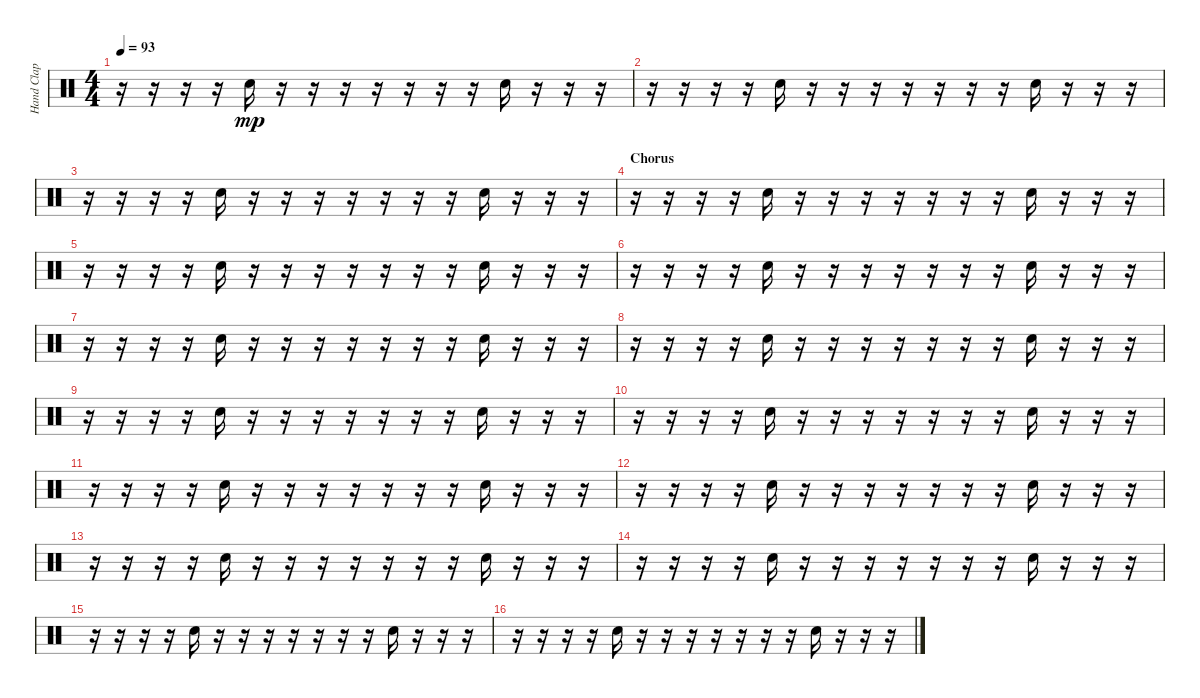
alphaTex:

\track ("Hand Clap" "Hand Clap") {instrument percussion}
\staff {score}
\articulation defaults
\ts (4 4)
\tempo 93
\clef neutral
\ks c
r.16{dy mp} r.16 r.16 r.16 "Hand Clap (hit)".16 r.16 r.16 r.16 r.16 r.16 r.16 r.16 "Hand Clap (hit)".16 r.16 r.16 r.16 |
r.16 r.16 r.16 r.16 "Hand Clap (hit)".16 r.16 r.16 r.16 r.16 r.16 r.16 r.16 "Hand Clap (hit)".16 r.16 r.16 r.16 |
r.16 r.16 r.16 r.16 "Hand Clap (hit)".16 r.16 r.16 r.16 r.16 r.16 r.16 r.16 "Hand Clap (hit)".16 r.16 r.16 r.16 |
\section ("" "Chorus")
r.16 r.16 r.16 r.16 "Hand Clap (hit)".16 r.16 r.16 r.16 r.16 r.16 r.16 r.16 "Hand Clap (hit)".16 r.16 r.16 r.16 |
r.16 r.16 r.16 r.16 "Hand Clap (hit)".16 r.16 r.16 r.16 r.16 r.16 r.16 r.16 "Hand Clap (hit)".16 r.16 r.16 r.16 |
r.16 r.16 r.16 r.16 "Hand Clap (hit)".16 r.16 r.16 r.16 r.16 r.16 r.16 r.16 "Hand Clap (hit)".16 r.16 r.16 r.16 |
r.16 r.16 r.16 r.16 "Hand Clap (hit)".16 r.16 r.16 r.16 r.16 r.16 r.16 r.16 "Hand Clap (hit)".16 r.16 r.16 r.16 |
r.16 r.16 r.16 r.16 "Hand Clap (hit)".16 r.16 r.16 r.16 r.16 r.16 r.16 r.16 "Hand Clap (hit)".16 r.16 r.16 r.16 |
r.16 r.16 r.16 r.16 "Hand Clap (hit)".16 r.16 r.16 r.16 r.16 r.16 r.16 r.16 "Hand Clap (hit)".16 r.16 r.16 r.16 |
r.16 r.16 r.16 r.16 "Hand Clap (hit)".16 r.16 r.16 r.16 r.16 r.16 r.16 r.16 "Hand Clap (hit)".16 r.16 r.16 r.16 |
r.16 r.16 r.16 r.16 "Hand Clap (hit)".16 r.16 r.16 r.16 r.16 r.16 r.16 r.16 "Hand Clap (hit)".16 r.16 r.16 r.16 |
r.16 r.16 r.16 r.16 "Hand Clap (hit)".16 r.16 r.16 r.16 r.16 r.16 r.16 r.16 "Hand Clap (hit)".16 r.16 r.16 r.16 |
r.16 r.16 r.16 r.16 "Hand Clap (hit)".16 r.16 r.16 r.16 r.16 r.16 r.16 r.16 "Hand Clap (hit)".16 r.16 r.16 r.16 |
r.16 r.16 r.16 r.16 "Hand Clap (hit)".16 r.16 r.16 r.16 r.16 r.16 r.16 r.16 "Hand Clap (hit)".16 r.16 r.16 r.16 |
r.16 r.16 r.16 r.16 "Hand Clap (hit)".16 r.16 r.16 r.16 r.16 r.16 r.16 r.16 "Hand Clap (hit)".16 r.16 r.16 r.16 |
r.16 r.16 r.16 r.16 "Hand Clap (hit)".16 r.16 r.16 r.16 r.16 r.16 r.16 r.16 "Hand Clap (hit)".16 r.16 r.16 r.16
